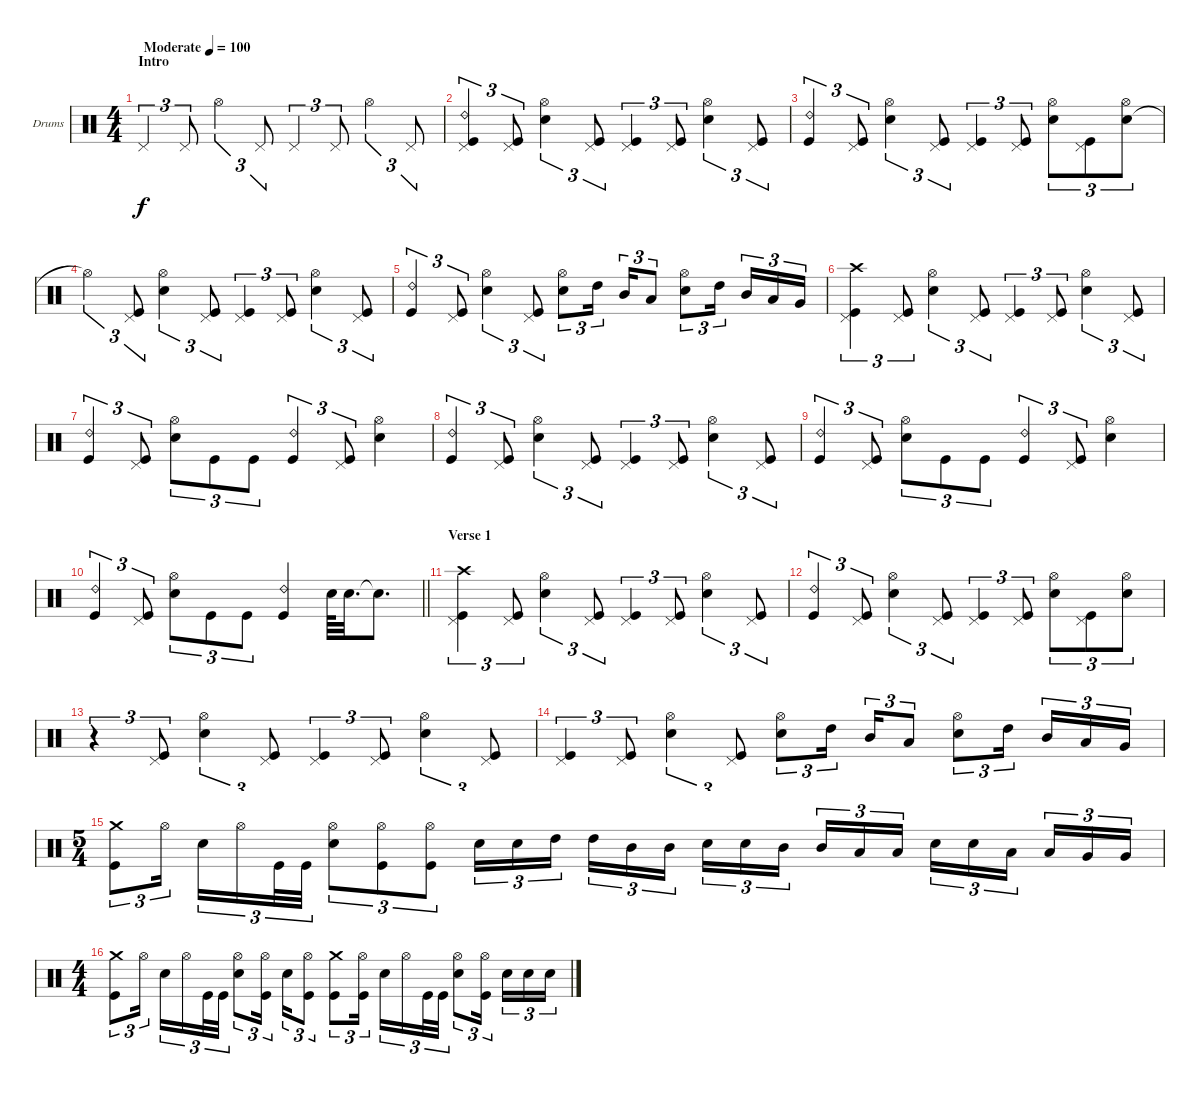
\bracketExtendMode groupsimilarinstruments
\firstSystemTrackNameOrientation horizontal
\otherSystemsTrackNameOrientation horizontal
\track ("drums (Anton Zulganov)" "Drums") {instrument percussion}
\staff {score}
\articulation defaults
\ts (4 4)
\beaming (8 2 2 2 2)
\section ("" "Intro")
\tempo (100 "Moderate")
\clef neutral
\ks aminor "Pedal Hi-Hat (hit)".4{tu (3 2) dy f} "Pedal Hi-Hat (hit)".8{tu (3 2)} "Hi-Hat (open)".4{tu (3 2)} "Pedal Hi-Hat (hit)".8{tu (3 2)} "Pedal Hi-Hat (hit)".4{tu (3 2)} "Pedal Hi-Hat (hit)".8{tu (3 2)} "Hi-Hat (open)".4{tu (3 2)} "Pedal Hi-Hat (hit)".8{tu (3 2)}
|
("Kick (hit)" "Pedal Hi-Hat (hit)" "Ride (bell) 2").4{tu (3 2)} ("Kick (hit)" "Pedal Hi-Hat (hit)").8{tu (3 2)} ("Snare (hit) 2" "Hi-Hat (open)").4{tu (3 2)} ("Kick (hit)" "Pedal Hi-Hat (hit)").8{tu (3 2)} ("Kick (hit)" "Pedal Hi-Hat (hit)").4{tu (3 2)} ("Kick (hit)" "Pedal Hi-Hat (hit)").8{tu (3 2)} ("Snare (hit) 2" "Hi-Hat (open)").4{tu (3 2)} ("Kick (hit)" "Pedal Hi-Hat (hit)").8{tu (3 2)} |
("Kick (hit)" "Ride (bell) 2").4{tu (3 2)} ("Kick (hit)" "Pedal Hi-Hat (hit)").8{tu (3 2)} ("Snare (hit) 2" "Hi-Hat (open)").4{tu (3 2)} ("Kick (hit)" "Pedal Hi-Hat (hit)").8{tu (3 2)} ("Kick (hit)" "Pedal Hi-Hat (hit)").4{tu (3 2)} ("Kick (hit)" "Pedal Hi-Hat (hit)").8{tu (3 2)} ("Snare (hit) 2" "Hi-Hat (open)").8{tu (3 2)} ("Kick (hit)" "Pedal Hi-Hat (hit)").8{tu (3 2)} ("Snare (hit) 2" "Hi-Hat (open)").8{tu (3 2)} |
"Hi-Hat (open)"{t}.4{tu (3 2)} ("Kick (hit)" "Pedal Hi-Hat (hit)").8{tu (3 2)} ("Snare (hit) 2" "Hi-Hat (open)").4{tu (3 2)} ("Kick (hit)" "Pedal Hi-Hat (hit)").8{tu (3 2)} ("Kick (hit)" "Pedal Hi-Hat (hit)").4{tu (3 2)} ("Kick (hit)" "Pedal Hi-Hat (hit)").8{tu (3 2)} ("Snare (hit) 2" "Hi-Hat (open)").4{tu (3 2)} ("Kick (hit)" "Pedal Hi-Hat (hit)").8{tu (3 2)} |
("Kick (hit)" "Ride (bell) 2").4{tu (3 2)} ("Kick (hit)" "Pedal Hi-Hat (hit)").8{tu (3 2)} ("Snare (hit) 2" "Hi-Hat (open)").4{tu (3 2)} ("Kick (hit)" "Pedal Hi-Hat (hit)").8{tu (3 2)} ("Snare (hit) 2" "Hi-Hat (open)").8{tu (3 2)} "High Tom (hit)".16{tu (3 2)} "Mid Tom (hit)".16{tu (3 2)} "Low Tom (hit)".8{tu (3 2)} ("Snare (hit) 2" "Hi-Hat (open)").8{tu (3 2)} "High Tom (hit)".16{tu (3 2)} "Mid Tom (hit)".16{tu (3 2)} "Low Tom (hit)".16{tu (3 2)} "Very Low Tom (hit)".16{tu (3 2)} |
("Kick (hit)" "Pedal Hi-Hat (hit)" "Crash high (hit)").4{tu (3 2)} ("Kick (hit)" "Pedal Hi-Hat (hit)").8{tu (3 2)} ("Snare (hit) 2" "Hi-Hat (open)").4{tu (3 2)} ("Kick (hit)" "Pedal Hi-Hat (hit)").8{tu (3 2)} ("Kick (hit)" "Pedal Hi-Hat (hit)").4{tu (3 2)} ("Kick (hit)" "Pedal Hi-Hat (hit)").8{tu (3 2)} ("Snare (hit) 2" "Hi-Hat (open)").4{tu (3 2)} ("Kick (hit)" "Pedal Hi-Hat (hit)").8{tu (3 2)} |
("Kick (hit)" "Ride (bell) 2").4{tu (3 2)} ("Kick (hit)" "Pedal Hi-Hat (hit)").8{tu (3 2)} ("Snare (hit) 2" "Hi-Hat (open)").8{tu (3 2)} "Kick (hit)".8{tu (3 2)} "Kick (hit)".8{tu (3 2)} ("Kick (hit)" "Ride (bell) 2").4{tu (3 2)} ("Kick (hit)" "Pedal Hi-Hat (hit)").8{tu (3 2)} ("Snare (hit) 2" "Hi-Hat (open)").4 |
("Kick (hit)" "Ride (bell) 2").4{tu (3 2)} ("Kick (hit)" "Pedal Hi-Hat (hit)").8{tu (3 2)} ("Snare (hit) 2" "Hi-Hat (open)").4{tu (3 2)} ("Kick (hit)" "Pedal Hi-Hat (hit)").8{tu (3 2)} ("Kick (hit)" "Pedal Hi-Hat (hit)").4{tu (3 2)} ("Kick (hit)" "Pedal Hi-Hat (hit)").8{tu (3 2)} ("Snare (hit) 2" "Hi-Hat (open)").4{tu (3 2)} ("Kick (hit)" "Pedal Hi-Hat (hit)").8{tu (3 2)} |
("Kick (hit)" "Ride (bell) 2").4{tu (3 2)} ("Kick (hit)" "Pedal Hi-Hat (hit)").8{tu (3 2)} ("Snare (hit) 2" "Hi-Hat (open)").8{tu (3 2)} "Kick (hit)".8{tu (3 2)} "Kick (hit)".8{tu (3 2)} ("Kick (hit)" "Ride (bell) 2").4{tu (3 2)} ("Kick (hit)" "Pedal Hi-Hat (hit)").8{tu (3 2)} ("Snare (hit) 2" "Hi-Hat (open)").4 |
\barLineRight lightlight
("Kick (hit)" "Ride (bell) 2").4{tu (3 2)} ("Kick (hit)" "Pedal Hi-Hat (hit)").8{tu (3 2)} ("Snare (hit) 2" "Hi-Hat (open)").8{tu (3 2)} "Kick (hit)".8{tu (3 2)} "Kick (hit)".8{tu (3 2)} ("Kick (hit)" "Ride (bell) 2").4 "Snare (hit) 2".64 "Snare (hit) 2".32{d} "Snare (hit) 2"{t}.8{d} |
\section ("" "Verse 1")
("Kick (hit)" "Pedal Hi-Hat (hit)" "Crash high (hit)").4{tu (3 2)} ("Kick (hit)" "Pedal Hi-Hat (hit)").8{tu (3 2)} ("Snare (hit) 2" "Hi-Hat (open)").4{tu (3 2)} ("Kick (hit)" "Pedal Hi-Hat (hit)").8{tu (3 2)} ("Kick (hit)" "Pedal Hi-Hat (hit)").4{tu (3 2)} ("Kick (hit)" "Pedal Hi-Hat (hit)").8{tu (3 2)} ("Snare (hit) 2" "Hi-Hat (open)").4{tu (3 2)} ("Kick (hit)" "Pedal Hi-Hat (hit)").8{tu (3 2)} |
("Kick (hit)" "Ride (bell) 2").4{tu (3 2)} ("Kick (hit)" "Pedal Hi-Hat (hit)").8{tu (3 2)} ("Snare (hit) 2" "Hi-Hat (open)").4{tu (3 2)} ("Kick (hit)" "Pedal Hi-Hat (hit)").8{tu (3 2)} ("Kick (hit)" "Pedal Hi-Hat (hit)").4{tu (3 2)} ("Kick (hit)" "Pedal Hi-Hat (hit)").8{tu (3 2)} ("Snare (hit) 2" "Hi-Hat (open)").8{tu (3 2)} ("Kick (hit)" "Pedal Hi-Hat (hit)").8{tu (3 2)} ("Snare (hit) 2" "Hi-Hat (open)").8{tu (3 2)} |
r.4{tu (3 2)} ("Kick (hit)" "Pedal Hi-Hat (hit)").8{tu (3 2)} ("Snare (hit) 2" "Hi-Hat (open)").4{tu (3 2)} ("Kick (hit)" "Pedal Hi-Hat (hit)").8{tu (3 2)} ("Kick (hit)" "Pedal Hi-Hat (hit)").4{tu (3 2)} ("Kick (hit)" "Pedal Hi-Hat (hit)").8{tu (3 2)} ("Snare (hit) 2" "Hi-Hat (open)").4{tu (3 2)} ("Kick (hit)" "Pedal Hi-Hat (hit)").8{tu (3 2)} |
("Kick (hit)" "Pedal Hi-Hat (hit)").4{tu (3 2)} ("Kick (hit)" "Pedal Hi-Hat (hit)").8{tu (3 2)} ("Snare (hit) 2" "Hi-Hat (open)").4{tu (3 2)} ("Kick (hit)" "Pedal Hi-Hat (hit)").8{tu (3 2)} ("Snare (hit) 2" "Hi-Hat (open)").8{tu (3 2)} "High Tom (hit)".16{tu (3 2)} "Mid Tom (hit)".16{tu (3 2)} "Low Tom (hit)".8{tu (3 2)} ("Snare (hit) 2" "Hi-Hat (open)").8{tu (3 2)} "High Tom (hit)".16{tu (3 2)} "Mid Tom (hit)".16{tu (3 2)} "Low Tom (hit)".16{tu (3 2)} "Very Low Tom (hit)".16{tu (3 2)} |
\ts (5 4)
\beaming (8 6 4)
("Kick (hit)" "Crash medium (hit)").8{tu (3 2)} "Hi-Hat (open)".16{tu (3 2)} "Snare (hit) 2".16{tu (3 2)} "Hi-Hat (open)".16{tu (3 2)} "Kick (hit)".32{tu (3 2)} "Kick (hit)".32{tu (3 2)} ("Snare (hit) 2" "Hi-Hat (open)").8{tu (3 2)} ("Kick (hit)" "Hi-Hat (open)").8{tu (3 2)} ("Kick (hit)" "Hi-Hat (open)").8{tu (3 2)} "Snare (hit) 2".16{tu (3 2)} "Snare (hit) 2".16{tu (3 2)} "High Tom (hit)".16{tu (3 2)} "High Tom (hit)".16{tu (3 2)} "Mid Tom (hit)".16{tu (3 2)} "Mid Tom (hit)".16{tu (3 2)} "Snare (hit) 2".16{tu (3 2)} "Snare (hit) 2".16{tu (3 2)} "Mid Tom (hit)".16{tu (3 2)} "Mid Tom (hit)".16{tu (3 2)} "Low Tom (hit)".16{tu (3 2)} "Low Tom (hit)".16{tu (3 2)} "Snare (hit) 2".16{tu (3 2)} "Snare (hit) 2".16{tu (3 2)} "Low Tom (hit)".16{tu (3 2)} "Low Tom (hit)".16{tu (3 2)} "Very Low Tom (hit)".16{tu (3 2)} "Very Low Tom (hit)".16{tu (3 2)} |
\ts (4 4)
\beaming (8 2 2 2 2)
("Kick (hit)" "Crash medium (hit)").8{tu (3 2)} "Hi-Hat (open)".16{tu (3 2)} "Snare (hit) 2".16{tu (3 2)} "Hi-Hat (open)".16{tu (3 2)} "Kick (hit)".32{tu (3 2)} "Kick (hit)".32{tu (3 2)} ("Snare (hit) 2" "Hi-Hat (open)").8{tu (3 2)} ("Kick (hit)" "Hi-Hat (open)").16{tu (3 2)} "Snare (hit) 2".16{tu (3 2)} ("Kick (hit)" "Hi-Hat (open)").8{tu (3 2)} ("Kick (hit)" "Crash medium (hit)").8{tu (3 2)} ("Hi-Hat (open)" "Kick (hit)").16{tu (3 2)} "Snare (hit) 2".16{tu (3 2)} "Hi-Hat (open)".16{tu (3 2)} "Kick (hit)".32{tu (3 2)} "Kick (hit)".32{tu (3 2)} ("Snare (hit) 2" "Hi-Hat (open)").8{tu (3 2)} ("Kick (hit)" "Hi-Hat (open)").16{tu (3 2)} "Snare (hit) 2".16{tu (3 2)} "Snare (hit) 2".16{tu (3 2)} "Snare (hit) 2".16{tu (3 2)}
